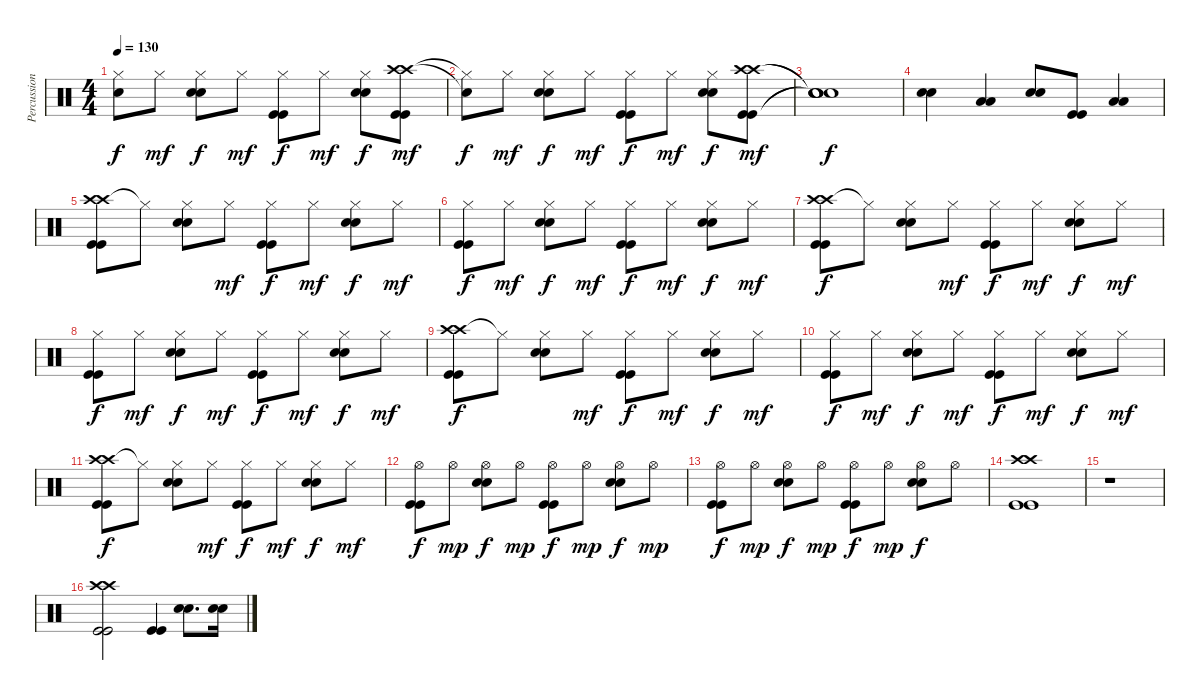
\track ("Percussions" "Percussion") {instrument percussion}
\staff {score}
\articulation defaults
\ts (4 4)
\tempo 130
\clef neutral
\ks c
("Hi-Hat (closed)"{t} "Snare (hit)"{t}).8{dy f} "Hi-Hat (closed)".8{dy mf} ("Hi-Hat (closed)" "Snare (hit) 2" "Snare (hit) 2").8{dy f} "Hi-Hat (closed)".8{dy mf} ("Hi-Hat (closed)" "Kick (hit)" "Kick (hit)").8{dy f} "Hi-Hat (closed)".8{dy mf} ("Hi-Hat (closed)" "Snare (hit) 2" "Snare (hit) 2").8{dy f} ("Crash high (hit)" "Crash high (hit)" "Kick (hit)" "Kick (hit)").8{dy mf} |
("Hi-Hat (closed)"{t} "Snare (hit)"{t}).8{dy f} "Hi-Hat (closed)".8{dy mf} ("Hi-Hat (closed)" "Snare (hit) 2" "Snare (hit) 2").8{dy f} "Hi-Hat (closed)".8{dy mf} ("Hi-Hat (closed)" "Kick (hit)" "Kick (hit)").8{dy f} "Hi-Hat (closed)".8{dy mf} ("Hi-Hat (closed)" "Snare (hit) 2" "Snare (hit) 2").8{dy f} ("Crash high (hit)" "Crash high (hit)" "Kick (hit)" "Kick (hit)").8{dy mf} |
("Snare (hit)"{t} "Snare (hit)"{t} "Snare (hit)"{t} "Snare (hit)"{t}).1{dy f} |
("Snare (hit) 2" "Snare (hit) 2").4 ("Low Tom (hit)" "Low Tom (hit)").4 ("Snare (hit) 2" "Snare (hit) 2").8 ("Kick (hit)" "Kick (hit)").8 ("Low Tom (hit)" "Low Tom (hit)").4 |
("Crash high (hit)" "Crash high (hit)" "Kick (hit)" "Kick (hit)").8 "Hi-Hat (closed)"{t}.8 ("Hi-Hat (closed)" "Snare (hit) 2" "Snare (hit) 2").8 "Hi-Hat (closed)".8{dy mf} ("Hi-Hat (closed)" "Kick (hit)" "Kick (hit)").8{dy f} "Hi-Hat (closed)".8{dy mf} ("Hi-Hat (closed)" "Snare (hit) 2" "Snare (hit) 2").8{dy f} "Hi-Hat (closed)".8{dy mf} |
("Hi-Hat (closed)" "Kick (hit)" "Kick (hit)").8{dy f} "Hi-Hat (closed)".8{dy mf} ("Hi-Hat (closed)" "Snare (hit) 2" "Snare (hit) 2").8{dy f} "Hi-Hat (closed)".8{dy mf} ("Hi-Hat (closed)" "Kick (hit)" "Kick (hit)").8{dy f} "Hi-Hat (closed)".8{dy mf} ("Hi-Hat (closed)" "Snare (hit) 2" "Snare (hit) 2").8{dy f} "Hi-Hat (closed)".8{dy mf} |
("Crash high (hit)" "Crash high (hit)" "Kick (hit)" "Kick (hit)").8{dy f} "Hi-Hat (closed)"{t}.8 ("Hi-Hat (closed)" "Snare (hit) 2" "Snare (hit) 2").8 "Hi-Hat (closed)".8{dy mf} ("Hi-Hat (closed)" "Kick (hit)" "Kick (hit)").8{dy f} "Hi-Hat (closed)".8{dy mf} ("Hi-Hat (closed)" "Snare (hit) 2" "Snare (hit) 2").8{dy f} "Hi-Hat (closed)".8{dy mf} |
("Hi-Hat (closed)" "Kick (hit)" "Kick (hit)").8{dy f} "Hi-Hat (closed)".8{dy mf} ("Hi-Hat (closed)" "Snare (hit) 2" "Snare (hit) 2").8{dy f} "Hi-Hat (closed)".8{dy mf} ("Hi-Hat (closed)" "Kick (hit)" "Kick (hit)").8{dy f} "Hi-Hat (closed)".8{dy mf} ("Hi-Hat (closed)" "Snare (hit) 2" "Snare (hit) 2").8{dy f} "Hi-Hat (closed)".8{dy mf} |
("Crash high (hit)" "Crash high (hit)" "Kick (hit)" "Kick (hit)").8{dy f} "Hi-Hat (closed)"{t}.8 ("Hi-Hat (closed)" "Snare (hit) 2" "Snare (hit) 2").8 "Hi-Hat (closed)".8{dy mf} ("Hi-Hat (closed)" "Kick (hit)" "Kick (hit)").8{dy f} "Hi-Hat (closed)".8{dy mf} ("Hi-Hat (closed)" "Snare (hit) 2" "Snare (hit) 2").8{dy f} "Hi-Hat (closed)".8{dy mf} |
("Hi-Hat (closed)" "Kick (hit)" "Kick (hit)").8{dy f} "Hi-Hat (closed)".8{dy mf} ("Hi-Hat (closed)" "Snare (hit) 2" "Snare (hit) 2").8{dy f} "Hi-Hat (closed)".8{dy mf} ("Hi-Hat (closed)" "Kick (hit)" "Kick (hit)").8{dy f} "Hi-Hat (closed)".8{dy mf} ("Hi-Hat (closed)" "Snare (hit) 2" "Snare (hit) 2").8{dy f} "Hi-Hat (closed)".8{dy mf} |
("Crash high (hit)" "Crash high (hit)" "Kick (hit)" "Kick (hit)").8{dy f} "Hi-Hat (closed)"{t}.8 ("Hi-Hat (closed)" "Snare (hit) 2" "Snare (hit) 2").8 "Hi-Hat (closed)".8{dy mf} ("Hi-Hat (closed)" "Kick (hit)" "Kick (hit)").8{dy f} "Hi-Hat (closed)".8{dy mf} ("Hi-Hat (closed)" "Snare (hit) 2" "Snare (hit) 2").8{dy f} "Hi-Hat (closed)".8{dy mf} |
("Hi-Hat (open)" "Kick (hit)" "Kick (hit)").8{dy f} "Hi-Hat (open)".8{dy mp} ("Hi-Hat (open)" "Snare (hit) 2" "Snare (hit) 2").8{dy f} "Hi-Hat (open)".8{dy mp} ("Hi-Hat (open)" "Kick (hit)" "Kick (hit)").8{dy f} "Hi-Hat (open)".8{dy mp} ("Hi-Hat (open)" "Snare (hit) 2" "Snare (hit) 2").8{dy f} "Hi-Hat (open)".8{dy mp} |
("Hi-Hat (open)" "Kick (hit)" "Kick (hit)").8{dy f} "Hi-Hat (open)".8{dy mp} ("Hi-Hat (open)" "Snare (hit) 2" "Snare (hit) 2").8{dy f} "Hi-Hat (open)".8{dy mp} ("Hi-Hat (open)" "Kick (hit)" "Kick (hit)").8{dy f} "Hi-Hat (open)".8{dy mp} ("Hi-Hat (open)" "Snare (hit) 2" "Snare (hit) 2").8{dy f} "Hi-Hat (open)".8 |
("Crash high (hit)" "Crash high (hit)" "Kick (hit)" "Kick (hit)").1 |
r.1 |
("Crash high (hit)" "Crash high (hit)" "Kick (hit)" "Kick (hit)").2 ("Kick (hit)" "Kick (hit)").4 ("Snare (hit) 2" "Snare (hit) 2").8{d} ("Snare (hit) 2" "Snare (hit) 2").16
